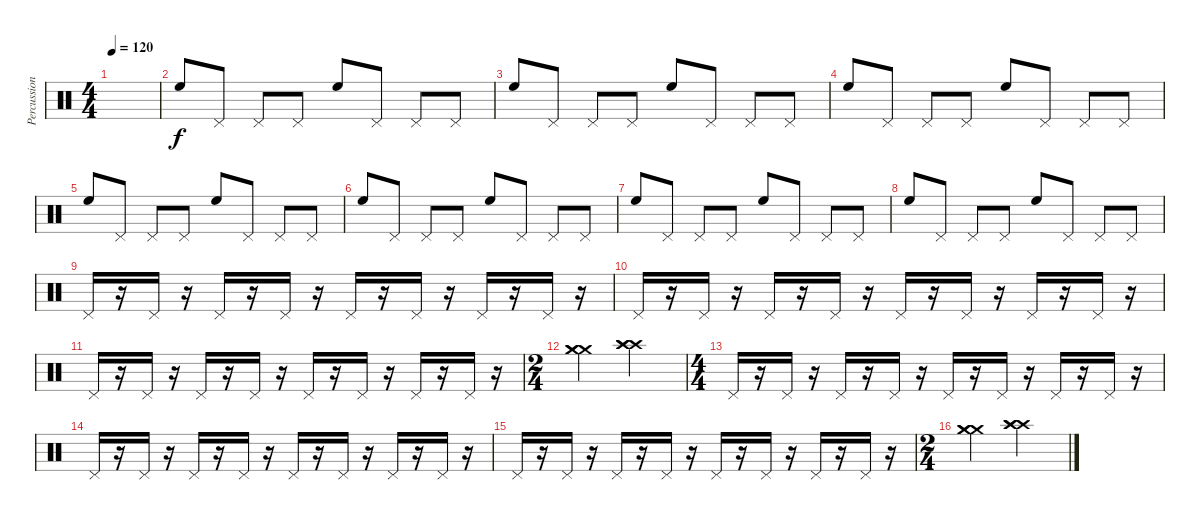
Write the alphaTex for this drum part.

\track ("Percussion" "Percussion") {instrument percussion}
\staff {score}
\articulation defaults
\ts (4 4)
\tempo 120
\clef neutral
\ks c
|
"High Floor Tom (hit)".8 "Pedal Hi-Hat (hit)".8 "Pedal Hi-Hat (hit)".8 "Pedal Hi-Hat (hit)".8 "High Floor Tom (hit)".8 "Pedal Hi-Hat (hit)".8 "Pedal Hi-Hat (hit)".8 "Pedal Hi-Hat (hit)".8 |
"High Floor Tom (hit)".8 "Pedal Hi-Hat (hit)".8 "Pedal Hi-Hat (hit)".8 "Pedal Hi-Hat (hit)".8 "High Floor Tom (hit)".8 "Pedal Hi-Hat (hit)".8 "Pedal Hi-Hat (hit)".8 "Pedal Hi-Hat (hit)".8 |
"High Floor Tom (hit)".8 "Pedal Hi-Hat (hit)".8 "Pedal Hi-Hat (hit)".8 "Pedal Hi-Hat (hit)".8 "High Floor Tom (hit)".8 "Pedal Hi-Hat (hit)".8 "Pedal Hi-Hat (hit)".8 "Pedal Hi-Hat (hit)".8 |
"High Floor Tom (hit)".8 "Pedal Hi-Hat (hit)".8 "Pedal Hi-Hat (hit)".8 "Pedal Hi-Hat (hit)".8 "High Floor Tom (hit)".8 "Pedal Hi-Hat (hit)".8 "Pedal Hi-Hat (hit)".8 "Pedal Hi-Hat (hit)".8 |
"High Floor Tom (hit)".8 "Pedal Hi-Hat (hit)".8 "Pedal Hi-Hat (hit)".8 "Pedal Hi-Hat (hit)".8 "High Floor Tom (hit)".8 "Pedal Hi-Hat (hit)".8 "Pedal Hi-Hat (hit)".8 "Pedal Hi-Hat (hit)".8 |
"High Floor Tom (hit)".8 "Pedal Hi-Hat (hit)".8 "Pedal Hi-Hat (hit)".8 "Pedal Hi-Hat (hit)".8 "High Floor Tom (hit)".8 "Pedal Hi-Hat (hit)".8 "Pedal Hi-Hat (hit)".8 "Pedal Hi-Hat (hit)".8 |
"High Floor Tom (hit)".8 "Pedal Hi-Hat (hit)".8 "Pedal Hi-Hat (hit)".8 "Pedal Hi-Hat (hit)".8 "High Floor Tom (hit)".8 "Pedal Hi-Hat (hit)".8 "Pedal Hi-Hat (hit)".8 "Pedal Hi-Hat (hit)".8 |
"Pedal Hi-Hat (hit)".16 r.16 "Pedal Hi-Hat (hit)".16 r.16 "Pedal Hi-Hat (hit)".16 r.16 "Pedal Hi-Hat (hit)".16 r.16 "Pedal Hi-Hat (hit)".16 r.16 "Pedal Hi-Hat (hit)".16 r.16 "Pedal Hi-Hat (hit)".16 r.16 "Pedal Hi-Hat (hit)".16 r.16 |
"Pedal Hi-Hat (hit)".16 r.16 "Pedal Hi-Hat (hit)".16 r.16 "Pedal Hi-Hat (hit)".16 r.16 "Pedal Hi-Hat (hit)".16 r.16 "Pedal Hi-Hat (hit)".16 r.16 "Pedal Hi-Hat (hit)".16 r.16 "Pedal Hi-Hat (hit)".16 r.16 "Pedal Hi-Hat (hit)".16 r.16 |
"Pedal Hi-Hat (hit)".16 r.16 "Pedal Hi-Hat (hit)".16 r.16 "Pedal Hi-Hat (hit)".16 r.16 "Pedal Hi-Hat (hit)".16 r.16 "Pedal Hi-Hat (hit)".16 r.16 "Pedal Hi-Hat (hit)".16 r.16 "Pedal Hi-Hat (hit)".16 r.16 "Pedal Hi-Hat (hit)".16 r.16 |
\ts (2 4)
("Crash medium (hit)" "Crash medium (hit)" "Crash medium (hit)").4 ("Crash high (hit)" "Crash high (hit)" "Crash high (hit)").4 |
\ts (4 4)
"Pedal Hi-Hat (hit)".16 r.16 "Pedal Hi-Hat (hit)".16 r.16 "Pedal Hi-Hat (hit)".16 r.16 "Pedal Hi-Hat (hit)".16 r.16 "Pedal Hi-Hat (hit)".16 r.16 "Pedal Hi-Hat (hit)".16 r.16 "Pedal Hi-Hat (hit)".16 r.16 "Pedal Hi-Hat (hit)".16 r.16 |
"Pedal Hi-Hat (hit)".16 r.16 "Pedal Hi-Hat (hit)".16 r.16 "Pedal Hi-Hat (hit)".16 r.16 "Pedal Hi-Hat (hit)".16 r.16 "Pedal Hi-Hat (hit)".16 r.16 "Pedal Hi-Hat (hit)".16 r.16 "Pedal Hi-Hat (hit)".16 r.16 "Pedal Hi-Hat (hit)".16 r.16 |
"Pedal Hi-Hat (hit)".16 r.16 "Pedal Hi-Hat (hit)".16 r.16 "Pedal Hi-Hat (hit)".16 r.16 "Pedal Hi-Hat (hit)".16 r.16 "Pedal Hi-Hat (hit)".16 r.16 "Pedal Hi-Hat (hit)".16 r.16 "Pedal Hi-Hat (hit)".16 r.16 "Pedal Hi-Hat (hit)".16 r.16 |
\ts (2 4)
("Crash medium (hit)" "Crash medium (hit)" "Crash medium (hit)").4 ("Crash high (hit)" "Crash high (hit)" "Crash high (hit)").4
